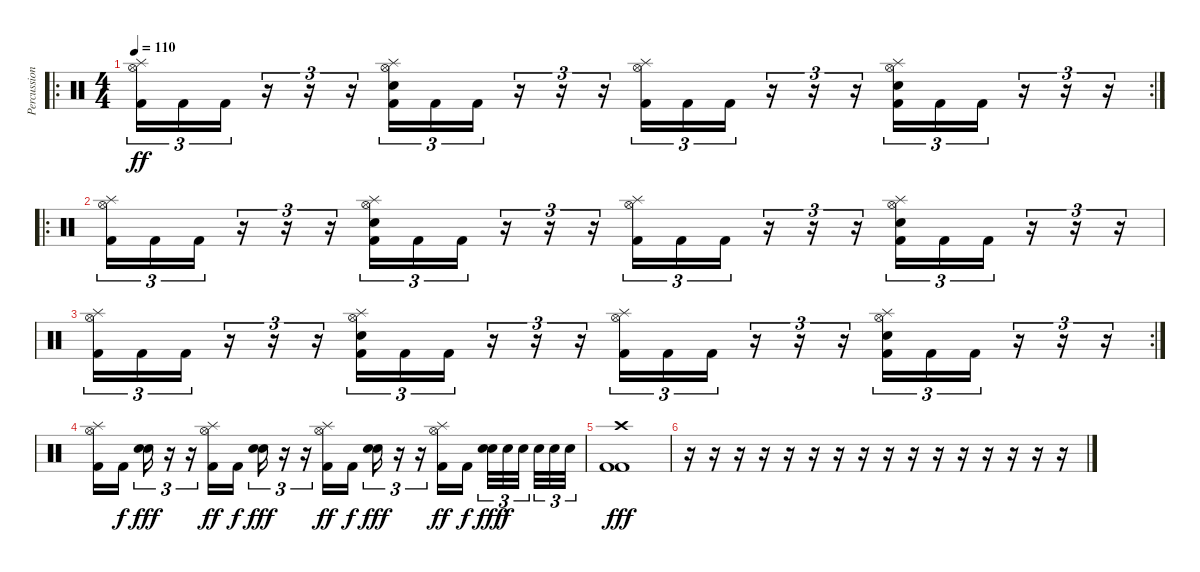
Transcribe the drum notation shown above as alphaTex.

\track ("Percussion" "Percussion") {instrument percussion bank 95}
\staff {score}
\articulation defaults
\ro
\rc 2
\ts (4 4)
\tempo 110
\clef neutral
\ks c
("Hi-Hat (open)" "Splash (hit)" "Kick (hit) 2").16{tu (3 2) dy ff} "Kick (hit) 2".16{tu (3 2)} "Kick (hit) 2".16{tu (3 2)} r.16{tu (3 2)} r.16{tu (3 2)} r.16{tu (3 2)} ("Hi-Hat (open)" "Splash (hit)" "Snare (hit) 2" "Kick (hit) 2").16{tu (3 2)} "Kick (hit) 2".16{tu (3 2)} "Kick (hit) 2".16{tu (3 2)} r.16{tu (3 2)} r.16{tu (3 2)} r.16{tu (3 2)} ("Hi-Hat (open)" "Splash (hit)" "Kick (hit) 2").16{tu (3 2)} "Kick (hit) 2".16{tu (3 2)} "Kick (hit) 2".16{tu (3 2)} r.16{tu (3 2)} r.16{tu (3 2)} r.16{tu (3 2)} ("Hi-Hat (open)" "Splash (hit)" "Snare (hit) 2" "Kick (hit) 2").16{tu (3 2)} "Kick (hit) 2".16{tu (3 2)} "Kick (hit) 2".16{tu (3 2)} r.16{tu (3 2)} r.16{tu (3 2)} r.16{tu (3 2)} |
\ro
("Hi-Hat (open)" "Splash (hit)" "Kick (hit) 2").16{tu (3 2)} "Kick (hit) 2".16{tu (3 2)} "Kick (hit) 2".16{tu (3 2)} r.16{tu (3 2)} r.16{tu (3 2)} r.16{tu (3 2)} ("Hi-Hat (open)" "Splash (hit)" "Snare (hit) 2" "Kick (hit) 2").16{tu (3 2)} "Kick (hit) 2".16{tu (3 2)} "Kick (hit) 2".16{tu (3 2)} r.16{tu (3 2)} r.16{tu (3 2)} r.16{tu (3 2)} ("Hi-Hat (open)" "Splash (hit)" "Kick (hit) 2").16{tu (3 2)} "Kick (hit) 2".16{tu (3 2)} "Kick (hit) 2".16{tu (3 2)} r.16{tu (3 2)} r.16{tu (3 2)} r.16{tu (3 2)} ("Hi-Hat (open)" "Splash (hit)" "Snare (hit) 2" "Kick (hit) 2").16{tu (3 2)} "Kick (hit) 2".16{tu (3 2)} "Kick (hit) 2".16{tu (3 2)} r.16{tu (3 2)} r.16{tu (3 2)} r.16{tu (3 2)} |
\rc 2
("Hi-Hat (open)" "Splash (hit)" "Kick (hit) 2").16{tu (3 2)} "Kick (hit) 2".16{tu (3 2)} "Kick (hit) 2".16{tu (3 2)} r.16{tu (3 2)} r.16{tu (3 2)} r.16{tu (3 2)} ("Hi-Hat (open)" "Splash (hit)" "Snare (hit) 2" "Kick (hit) 2").16{tu (3 2)} "Kick (hit) 2".16{tu (3 2)} "Kick (hit) 2".16{tu (3 2)} r.16{tu (3 2)} r.16{tu (3 2)} r.16{tu (3 2)} ("Hi-Hat (open)" "Splash (hit)" "Kick (hit) 2").16{tu (3 2)} "Kick (hit) 2".16{tu (3 2)} "Kick (hit) 2".16{tu (3 2)} r.16{tu (3 2)} r.16{tu (3 2)} r.16{tu (3 2)} ("Hi-Hat (open)" "Splash (hit)" "Snare (hit) 2" "Kick (hit) 2").16{tu (3 2)} "Kick (hit) 2".16{tu (3 2)} "Kick (hit) 2".16{tu (3 2)} r.16{tu (3 2)} r.16{tu (3 2)} r.16{tu (3 2)} |
("Hi-Hat (open)" "Splash (hit)" "Kick (hit) 2").16 "Kick (hit) 2".16{dy f beam splitsecondary} ("Snare (hit) 2" "Snare (hit) 2").16{tu (3 2) dy fff} r.16{tu (3 2)} r.16{tu (3 2)} ("Hi-Hat (open)" "Splash (hit)" "Kick (hit) 2").16{dy ff} "Kick (hit) 2".16{dy f beam splitsecondary} ("Snare (hit) 2" "Snare (hit) 2").16{tu (3 2) dy fff} r.16{tu (3 2)} r.16{tu (3 2)} ("Hi-Hat (open)" "Splash (hit)" "Kick (hit) 2").16{dy ff} "Kick (hit) 2".16{dy f beam splitsecondary} ("Snare (hit) 2" "Snare (hit) 2").16{tu (3 2) dy fff} r.16{tu (3 2)} r.16{tu (3 2)} ("Hi-Hat (open)" "Splash (hit)" "Kick (hit) 2").16{dy ff} "Kick (hit) 2".16{dy f beam splitsecondary} ("Snare (hit) 2" "Snare (hit) 2").32{tu (3 2) dy fff} "Snare (hit) 2".32{tu (3 2) dy f} "Snare (hit) 2".32{tu (3 2) beam splitsecondary} "Snare (hit) 2".32{tu (3 2)} "Snare (hit) 2".32{tu (3 2)} "Snare (hit) 2".32{tu (3 2)} |
("Crash high (hit)" "Kick (hit) 2" "Kick (hit) 2").1{dy fff} |
r.16 r.16 r.16 r.16 r.16 r.16 r.16 r.16 r.16 r.16 r.16 r.16 r.16 r.16 r.16 r.16
